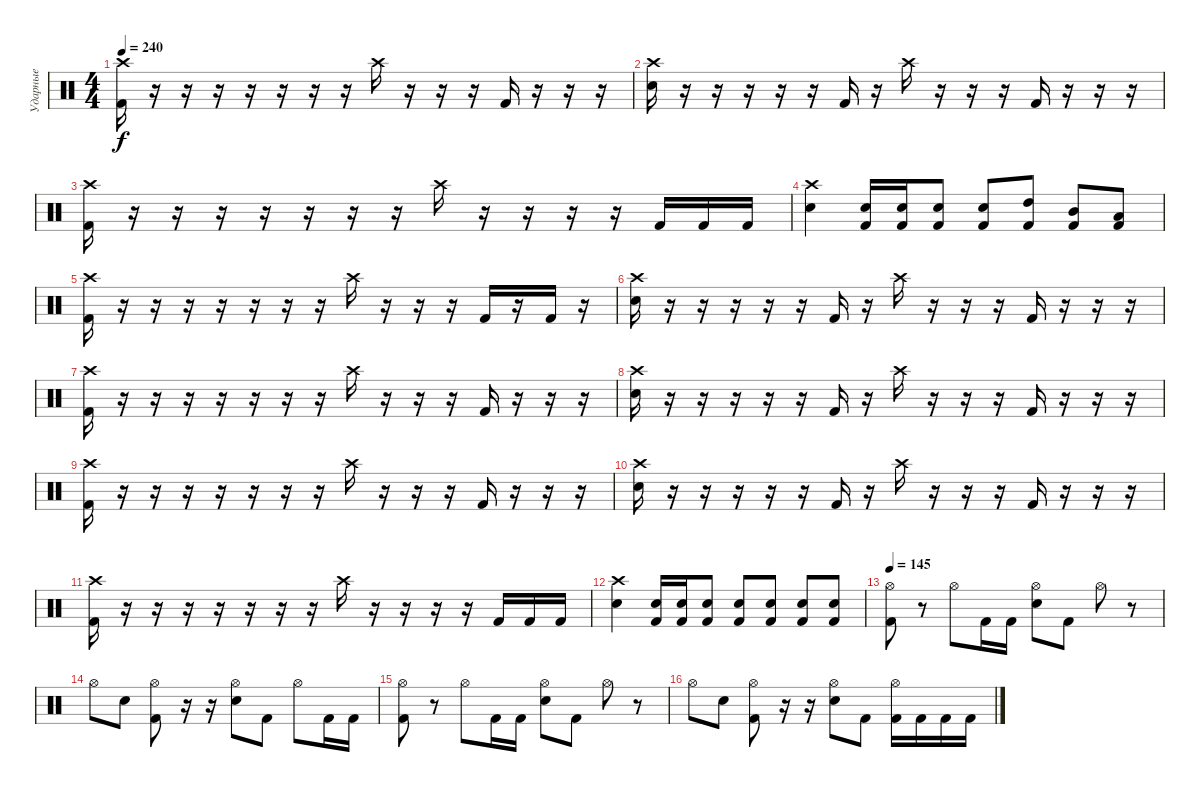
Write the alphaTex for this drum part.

\track ("Ударные" "Ударные") {instrument percussion}
\staff {score}
\articulation defaults
\ts (4 4)
\tempo 240
\clef neutral
\ks c
("Crash high (hit)" "Kick (hit) 2").16{dy f} r.16 r.16 r.16 r.16 r.16 r.16 r.16 "Crash high (hit)".16 r.16 r.16 r.16 "Kick (hit) 2".16 r.16 r.16 r.16 |
("Crash high (hit)" "Electric Snare (hit)").16 r.16 r.16 r.16 r.16 r.16 "Kick (hit) 2".16 r.16 "Crash high (hit)".16 r.16 r.16 r.16 "Kick (hit) 2".16 r.16 r.16 r.16 |
("Crash high (hit)" "Kick (hit) 2").16 r.16 r.16 r.16 r.16 r.16 r.16 r.16 "Crash high (hit)".16 r.16 r.16 r.16 r.16 "Kick (hit) 2".16 "Kick (hit) 2".16 "Kick (hit) 2".16 |
("Crash high (hit)" "Electric Snare (hit)").4 ("Electric Snare (hit)" "Kick (hit) 2").16 ("Electric Snare (hit)" "Kick (hit) 2").16 ("Electric Snare (hit)" "Kick (hit) 2").8 ("Electric Snare (hit)" "Kick (hit) 2").8 ("High Tom (hit)" "Kick (hit) 2").8 ("Mid Tom (hit)" "Kick (hit) 2").8 ("Low Tom (hit)" "Kick (hit) 2").8 |
("Crash high (hit)" "Kick (hit) 2").16 r.16 r.16 r.16 r.16 r.16 r.16 r.16 "Crash high (hit)".16 r.16 r.16 r.16 "Kick (hit) 2".16 r.16 "Kick (hit) 2".16 r.16 |
("Crash high (hit)" "Electric Snare (hit)").16 r.16 r.16 r.16 r.16 r.16 "Kick (hit) 2".16 r.16 "Crash high (hit)".16 r.16 r.16 r.16 "Kick (hit) 2".16 r.16 r.16 r.16 |
("Crash high (hit)" "Kick (hit) 2").16 r.16 r.16 r.16 r.16 r.16 r.16 r.16 "Crash high (hit)".16 r.16 r.16 r.16 "Kick (hit) 2".16 r.16 r.16 r.16 |
("Crash high (hit)" "Electric Snare (hit)").16 r.16 r.16 r.16 r.16 r.16 "Kick (hit) 2".16 r.16 "Crash high (hit)".16 r.16 r.16 r.16 "Kick (hit) 2".16 r.16 r.16 r.16 |
("Crash high (hit)" "Kick (hit) 2").16 r.16 r.16 r.16 r.16 r.16 r.16 r.16 "Crash high (hit)".16 r.16 r.16 r.16 "Kick (hit) 2".16 r.16 r.16 r.16 |
("Crash high (hit)" "Electric Snare (hit)").16 r.16 r.16 r.16 r.16 r.16 "Kick (hit) 2".16 r.16 "Crash high (hit)".16 r.16 r.16 r.16 "Kick (hit) 2".16 r.16 r.16 r.16 |
("Crash high (hit)" "Kick (hit) 2").16 r.16 r.16 r.16 r.16 r.16 r.16 r.16 "Crash high (hit)".16 r.16 r.16 r.16 r.16 "Kick (hit) 2".16 "Kick (hit) 2".16 "Kick (hit) 2".16 |
("Crash high (hit)" "Electric Snare (hit)").4 ("Electric Snare (hit)" "Kick (hit) 2").16 ("Electric Snare (hit)" "Kick (hit) 2").16 ("Electric Snare (hit)" "Kick (hit) 2").8 ("Electric Snare (hit)" "Kick (hit) 2").8 ("Electric Snare (hit)" "Kick (hit) 2").8 ("Electric Snare (hit)" "Kick (hit) 2").8 ("Electric Snare (hit)" "Kick (hit) 2").8 |
\tempo 145
("Hi-Hat (open)" "Kick (hit) 2").8 r.8 "Hi-Hat (open)".8 "Kick (hit) 2".16 "Kick (hit) 2".16 ("Hi-Hat (open)" "Electric Snare (hit)").8 "Kick (hit) 2".8 "Hi-Hat (open)".8 r.8 |
"Hi-Hat (open)".8 "Electric Snare (hit)".8 ("Hi-Hat (open)" "Kick (hit) 2").8 r.16 r.16 ("Hi-Hat (open)" "Electric Snare (hit)").8 "Kick (hit) 2".8 "Hi-Hat (open)".8 "Kick (hit) 2".16 "Kick (hit) 2".16 |
("Hi-Hat (open)" "Kick (hit) 2").8 r.8 "Hi-Hat (open)".8 "Kick (hit) 2".16 "Kick (hit) 2".16 ("Hi-Hat (open)" "Electric Snare (hit)").8 "Kick (hit) 2".8 "Hi-Hat (open)".8 r.8 |
"Hi-Hat (open)".8 "Electric Snare (hit)".8 ("Hi-Hat (open)" "Kick (hit) 2").8 r.16 r.16 ("Hi-Hat (open)" "Electric Snare (hit)").8 "Kick (hit) 2".8 ("Hi-Hat (open)" "Kick (hit) 2").16 "Kick (hit) 2".16 "Kick (hit) 2".16 "Kick (hit) 2".16
